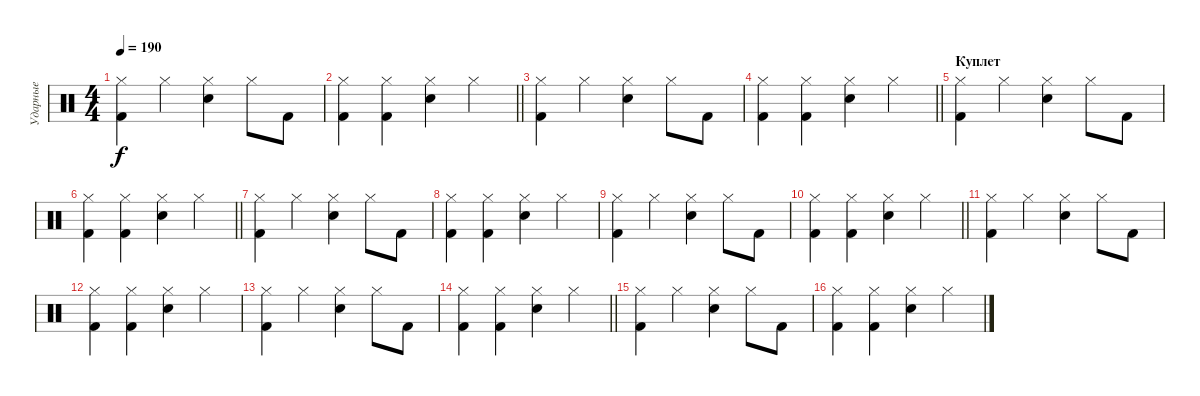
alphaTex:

\track ("Ударные" "Ударные") {instrument percussion}
\staff {score}
\articulation defaults
\ts (4 4)
\tempo 190
\clef neutral
\ks c
("Kick (hit) 2" "Hi-Hat (closed)").4{dy f} "Hi-Hat (closed)".4 ("Hand Clap (hit)" "Hi-Hat (closed)").4 "Hi-Hat (closed)".8 "Kick (hit) 2".8 |
\barLineRight lightlight
("Kick (hit) 2" "Hi-Hat (closed)").4 ("Kick (hit) 2" "Hi-Hat (closed)").4 ("Hand Clap (hit)" "Hi-Hat (closed)").4 "Hi-Hat (closed)".4 |
("Kick (hit) 2" "Hi-Hat (closed)").4 "Hi-Hat (closed)".4 ("Hand Clap (hit)" "Hi-Hat (closed)").4 "Hi-Hat (closed)".8 "Kick (hit) 2".8 |
\barLineRight lightlight
("Kick (hit) 2" "Hi-Hat (closed)").4 ("Kick (hit) 2" "Hi-Hat (closed)").4 ("Hand Clap (hit)" "Hi-Hat (closed)").4 "Hi-Hat (closed)".4 |
\section ("" "Куплет")
("Kick (hit) 2" "Hi-Hat (closed)").4 "Hi-Hat (closed)".4 ("Hand Clap (hit)" "Hi-Hat (closed)").4 "Hi-Hat (closed)".8 "Kick (hit) 2".8 |
\barLineRight lightlight
("Kick (hit) 2" "Hi-Hat (closed)").4 ("Kick (hit) 2" "Hi-Hat (closed)").4 ("Hand Clap (hit)" "Hi-Hat (closed)").4 "Hi-Hat (closed)".4 |
("Kick (hit) 2" "Hi-Hat (closed)").4 "Hi-Hat (closed)".4 ("Hand Clap (hit)" "Hi-Hat (closed)").4 "Hi-Hat (closed)".8 "Kick (hit) 2".8 |
("Kick (hit) 2" "Hi-Hat (closed)").4 ("Kick (hit) 2" "Hi-Hat (closed)").4 ("Hand Clap (hit)" "Hi-Hat (closed)").4 "Hi-Hat (closed)".4 |
("Kick (hit) 2" "Hi-Hat (closed)").4 "Hi-Hat (closed)".4 ("Hand Clap (hit)" "Hi-Hat (closed)").4 "Hi-Hat (closed)".8 "Kick (hit) 2".8 |
\barLineRight lightlight
("Kick (hit) 2" "Hi-Hat (closed)").4 ("Kick (hit) 2" "Hi-Hat (closed)").4 ("Hand Clap (hit)" "Hi-Hat (closed)").4 "Hi-Hat (closed)".4 |
("Kick (hit) 2" "Hi-Hat (closed)").4 "Hi-Hat (closed)".4 ("Hand Clap (hit)" "Hi-Hat (closed)").4 "Hi-Hat (closed)".8 "Kick (hit) 2".8 |
("Kick (hit) 2" "Hi-Hat (closed)").4 ("Kick (hit) 2" "Hi-Hat (closed)").4 ("Hand Clap (hit)" "Hi-Hat (closed)").4 "Hi-Hat (closed)".4 |
("Kick (hit) 2" "Hi-Hat (closed)").4 "Hi-Hat (closed)".4 ("Hand Clap (hit)" "Hi-Hat (closed)").4 "Hi-Hat (closed)".8 "Kick (hit) 2".8 |
\barLineRight lightlight
("Kick (hit) 2" "Hi-Hat (closed)").4 ("Kick (hit) 2" "Hi-Hat (closed)").4 ("Hand Clap (hit)" "Hi-Hat (closed)").4 "Hi-Hat (closed)".4 |
("Kick (hit) 2" "Hi-Hat (closed)").4 "Hi-Hat (closed)".4 ("Hand Clap (hit)" "Hi-Hat (closed)").4 "Hi-Hat (closed)".8 "Kick (hit) 2".8 |
("Kick (hit) 2" "Hi-Hat (closed)").4 ("Kick (hit) 2" "Hi-Hat (closed)").4 ("Hand Clap (hit)" "Hi-Hat (closed)").4 "Hi-Hat (closed)".4
